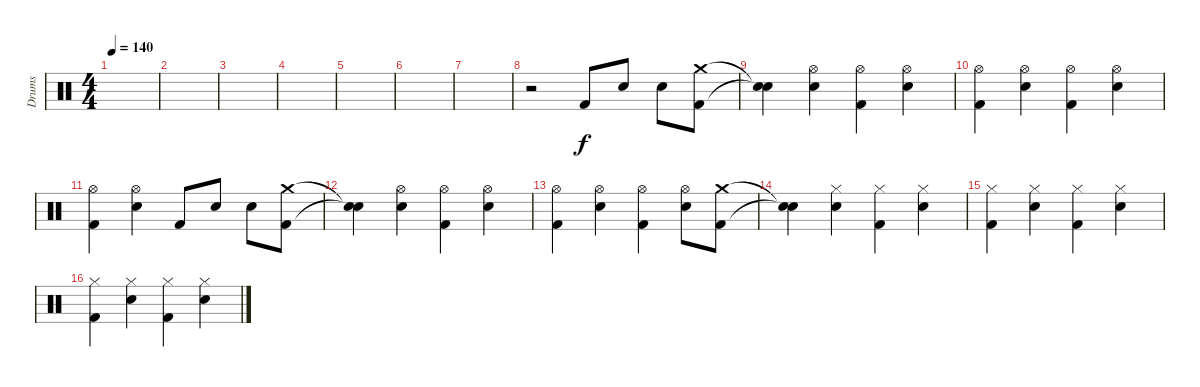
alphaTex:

\track ("Drums" "Drums") {instrument percussion}
\staff {score}
\articulation defaults
\ts (4 4)
\tempo 140
\clef neutral
\ks c
|
|
|
|
|
|
|
r.2 "Kick (hit) 2".8 "Electric Snare (hit)".8 "Electric Snare (hit)".8 ("Crash medium (hit)" "Kick (hit) 2").8 |
("Snare (hit)"{t} "Snare (hit)"{t}).4 ("Electric Snare (hit)" "Hi-Hat (open)").4 ("Hi-Hat (open)" "Kick (hit) 2").4 ("Electric Snare (hit)" "Hi-Hat (open)").4 |
("Hi-Hat (open)" "Kick (hit) 2").4 ("Hi-Hat (open)" "Electric Snare (hit)").4 ("Hi-Hat (open)" "Kick (hit) 2").4 ("Hi-Hat (open)" "Electric Snare (hit)").4 |
("Hi-Hat (open)" "Kick (hit) 2").4 ("Hi-Hat (open)" "Electric Snare (hit)").4 "Kick (hit) 2".8 "Electric Snare (hit)".8 "Electric Snare (hit)".8 ("Crash medium (hit)" "Kick (hit) 2").8 |
("Snare (hit)"{t} "Snare (hit)"{t}).4 ("Hi-Hat (open)" "Electric Snare (hit)").4 ("Hi-Hat (open)" "Kick (hit) 2").4 ("Hi-Hat (open)" "Electric Snare (hit)").4 |
("Hi-Hat (open)" "Kick (hit) 2").4 ("Hi-Hat (open)" "Electric Snare (hit)").4 ("Hi-Hat (open)" "Kick (hit) 2").4 ("Hi-Hat (open)" "Electric Snare (hit)").8 ("Crash medium (hit)" "Kick (hit) 2").8 |
("Snare (hit)"{t} "Snare (hit)"{t}).4 ("Hi-Hat (closed)" "Electric Snare (hit)").4 ("Hi-Hat (closed)" "Kick (hit) 2").4 ("Hi-Hat (closed)" "Electric Snare (hit)").4 |
("Hi-Hat (closed)" "Kick (hit) 2").4 ("Hi-Hat (closed)" "Electric Snare (hit)").4 ("Hi-Hat (closed)" "Kick (hit) 2").4 ("Hi-Hat (closed)" "Electric Snare (hit)").4 |
("Hi-Hat (closed)" "Kick (hit) 2").4 ("Hi-Hat (closed)" "Electric Snare (hit)").4 ("Hi-Hat (closed)" "Kick (hit) 2").4 ("Hi-Hat (closed)" "Electric Snare (hit)").4
